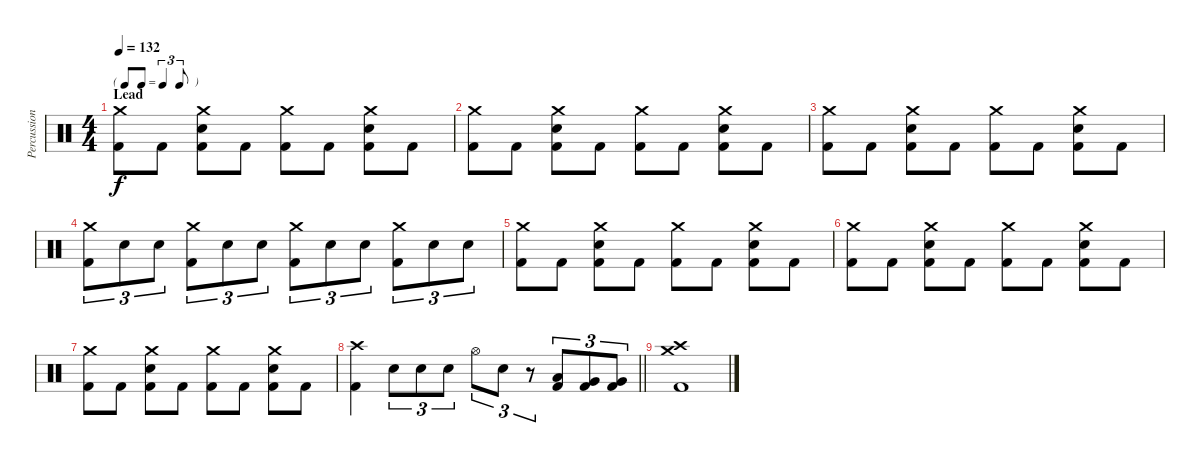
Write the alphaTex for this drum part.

\track ("Percussion" "Percussion") {instrument percussion}
\staff {score}
\articulation defaults
\ts (4 4)
\tf triplet8th
\section ("" "Lead")
\tempo 132
\clef neutral
\ks c
("Crash medium (hit)" "Kick (hit) 2").8{dy f} "Kick (hit) 2".8 ("Crash medium (hit)" "Electric Snare (hit)" "Kick (hit) 2").8 "Kick (hit) 2".8 ("Crash medium (hit)" "Kick (hit) 2").8 "Kick (hit) 2".8 ("Crash medium (hit)" "Electric Snare (hit)" "Kick (hit) 2").8 "Kick (hit) 2".8 |
("Crash medium (hit)" "Kick (hit) 2").8 "Kick (hit) 2".8 ("Crash medium (hit)" "Electric Snare (hit)" "Kick (hit) 2").8 "Kick (hit) 2".8 ("Crash medium (hit)" "Kick (hit) 2").8 "Kick (hit) 2".8 ("Crash medium (hit)" "Electric Snare (hit)" "Kick (hit) 2").8 "Kick (hit) 2".8 |
("Crash medium (hit)" "Kick (hit) 2").8 "Kick (hit) 2".8 ("Crash medium (hit)" "Electric Snare (hit)" "Kick (hit) 2").8 "Kick (hit) 2".8 ("Crash medium (hit)" "Kick (hit) 2").8 "Kick (hit) 2".8 ("Crash medium (hit)" "Electric Snare (hit)" "Kick (hit) 2").8 "Kick (hit) 2".8 |
("Crash medium (hit)" "Kick (hit) 2").8{tu (3 2)} "Electric Snare (hit)".8{tu (3 2)} "Electric Snare (hit)".8{tu (3 2)} ("Crash medium (hit)" "Kick (hit) 2").8{tu (3 2)} "Electric Snare (hit)".8{tu (3 2)} "Electric Snare (hit)".8{tu (3 2)} ("Crash medium (hit)" "Kick (hit) 2").8{tu (3 2)} "Electric Snare (hit)".8{tu (3 2)} "Electric Snare (hit)".8{tu (3 2)} ("Crash medium (hit)" "Kick (hit) 2").8{tu (3 2)} "Electric Snare (hit)".8{tu (3 2)} "Electric Snare (hit)".8{tu (3 2)} |
("Crash medium (hit)" "Kick (hit) 2").8 "Kick (hit) 2".8 ("Crash medium (hit)" "Electric Snare (hit)" "Kick (hit) 2").8 "Kick (hit) 2".8 ("Crash medium (hit)" "Kick (hit) 2").8 "Kick (hit) 2".8 ("Crash medium (hit)" "Electric Snare (hit)" "Kick (hit) 2").8 "Kick (hit) 2".8 |
("Crash medium (hit)" "Kick (hit) 2").8 "Kick (hit) 2".8 ("Crash medium (hit)" "Electric Snare (hit)" "Kick (hit) 2").8 "Kick (hit) 2".8 ("Crash medium (hit)" "Kick (hit) 2").8 "Kick (hit) 2".8 ("Crash medium (hit)" "Electric Snare (hit)" "Kick (hit) 2").8 "Kick (hit) 2".8 |
("Crash medium (hit)" "Kick (hit) 2").8 "Kick (hit) 2".8 ("Crash medium (hit)" "Electric Snare (hit)" "Kick (hit) 2").8 "Kick (hit) 2".8 ("Crash medium (hit)" "Kick (hit) 2").8 "Kick (hit) 2".8 ("Crash medium (hit)" "Electric Snare (hit)" "Kick (hit) 2").8 "Kick (hit) 2".8 |
\barLineRight lightlight
("Crash high (hit)" "Kick (hit) 2").4 "Electric Snare (hit)".8{tu (3 2)} "Electric Snare (hit)".8{tu (3 2)} "Electric Snare (hit)".8{tu (3 2)} "Hi-Hat (open)".8{tu (3 2)} "Electric Snare (hit)".8{tu (3 2)} r.8{tu (3 2)} ("Low Tom (hit)" "Kick (hit) 2").8{tu (3 2)} ("Very Low Tom (hit)" "Kick (hit) 2").8{tu (3 2)} ("Very Low Tom (hit)" "Kick (hit) 2").8{tu (3 2)} |
("Crash medium (hit)" "Crash high (hit)" "Kick (hit) 2").1
